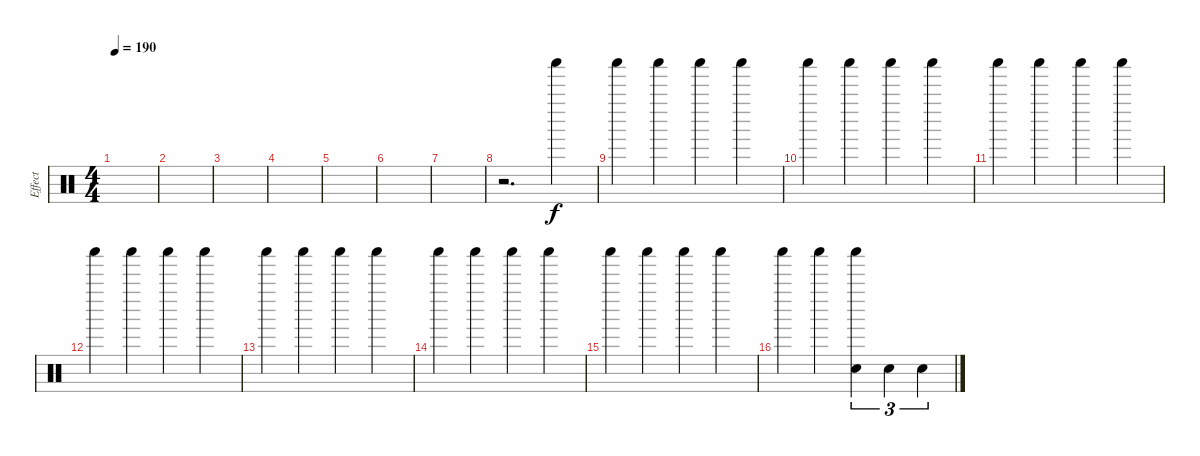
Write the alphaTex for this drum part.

\track ("Effect" "Effect") {instrument percussion}
\staff {score}
\articulation defaults
\ts (4 4)
\tempo 190
\clef neutral
\ks c
|
|
|
|
|
|
|
r.2{d} "Shaker (hit)".4 |
"Shaker (hit)".4 "Shaker (hit)".4 "Shaker (hit)".4 "Shaker (hit)".4 |
"Shaker (hit)".4 "Shaker (hit)".4 "Shaker (hit)".4 "Shaker (hit)".4 |
"Shaker (hit)".4 "Shaker (hit)".4 "Shaker (hit)".4 "Shaker (hit)".4 |
"Shaker (hit)".4 "Shaker (hit)".4 "Shaker (hit)".4 "Shaker (hit)".4 |
"Shaker (hit)".4 "Shaker (hit)".4 "Shaker (hit)".4 "Shaker (hit)".4 |
"Shaker (hit)".4 "Shaker (hit)".4 "Shaker (hit)".4 "Shaker (hit)".4 |
"Shaker (hit)".4 "Shaker (hit)".4 "Shaker (hit)".4 "Shaker (hit)".4 |
"Shaker (hit)".4 "Shaker (hit)".4 ("Shaker (hit)" "Electric Snare (hit)").4{tu (3 2)} "Electric Snare (hit)".4{tu (3 2)} "Electric Snare (hit)".4{tu (3 2)}
